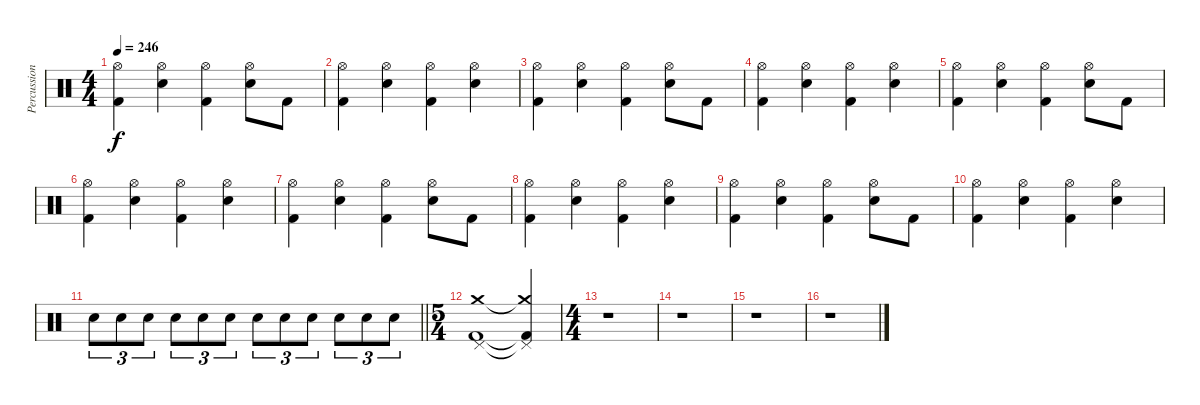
\track ("Percussions" "Percussion") {instrument percussion}
\staff {score}
\articulation defaults
\ts (4 4)
\tempo 246
\clef neutral
\ks c
("Hi-Hat (open)" "Kick (hit) 2").4{dy f} ("Hi-Hat (open)" "Electric Snare (hit)").4 ("Hi-Hat (open)" "Kick (hit) 2").4 ("Hi-Hat (open)" "Electric Snare (hit)").8 "Kick (hit) 2".8 |
("Hi-Hat (open)" "Kick (hit) 2").4 ("Hi-Hat (open)" "Electric Snare (hit)").4 ("Hi-Hat (open)" "Kick (hit) 2").4 ("Hi-Hat (open)" "Electric Snare (hit)").4 |
("Hi-Hat (open)" "Kick (hit) 2").4 ("Hi-Hat (open)" "Electric Snare (hit)").4 ("Hi-Hat (open)" "Kick (hit) 2").4 ("Hi-Hat (open)" "Electric Snare (hit)").8 "Kick (hit) 2".8 |
("Hi-Hat (open)" "Kick (hit) 2").4 ("Hi-Hat (open)" "Electric Snare (hit)").4 ("Hi-Hat (open)" "Kick (hit) 2").4 ("Hi-Hat (open)" "Electric Snare (hit)").4 |
("Hi-Hat (open)" "Kick (hit) 2").4 ("Hi-Hat (open)" "Electric Snare (hit)").4 ("Hi-Hat (open)" "Kick (hit) 2").4 ("Hi-Hat (open)" "Electric Snare (hit)").8 "Kick (hit) 2".8 |
("Hi-Hat (open)" "Kick (hit) 2").4 ("Hi-Hat (open)" "Electric Snare (hit)").4 ("Hi-Hat (open)" "Kick (hit) 2").4 ("Hi-Hat (open)" "Electric Snare (hit)").4 |
("Hi-Hat (open)" "Kick (hit) 2").4 ("Hi-Hat (open)" "Electric Snare (hit)").4 ("Hi-Hat (open)" "Kick (hit) 2").4 ("Hi-Hat (open)" "Electric Snare (hit)").8 "Kick (hit) 2".8 |
("Hi-Hat (open)" "Kick (hit) 2").4 ("Hi-Hat (open)" "Electric Snare (hit)").4 ("Hi-Hat (open)" "Kick (hit) 2").4 ("Hi-Hat (open)" "Electric Snare (hit)").4 |
("Hi-Hat (open)" "Kick (hit) 2").4 ("Hi-Hat (open)" "Electric Snare (hit)").4 ("Hi-Hat (open)" "Kick (hit) 2").4 ("Hi-Hat (open)" "Electric Snare (hit)").8 "Kick (hit) 2".8 |
("Hi-Hat (open)" "Kick (hit) 2").4 ("Hi-Hat (open)" "Electric Snare (hit)").4 ("Hi-Hat (open)" "Kick (hit) 2").4 ("Hi-Hat (open)" "Electric Snare (hit)").4 |
\barLineRight lightlight "Electric Snare (hit)".8{tu (3 2)} "Electric Snare (hit)".8{tu (3 2)} "Electric Snare (hit)".8{tu (3 2)} "Electric Snare (hit)".8{tu (3 2)} "Electric Snare (hit)".8{tu (3 2)} "Electric Snare (hit)".8{tu (3 2)} "Electric Snare (hit)".8{tu (3 2)} "Electric Snare (hit)".8{tu (3 2)} "Electric Snare (hit)".8{tu (3 2)} "Electric Snare (hit)".8{tu (3 2)} "Electric Snare (hit)".8{tu (3 2)} "Electric Snare (hit)".8{tu (3 2)}
|
\ts (5 4)
("Crash medium (hit)" "Pedal Hi-Hat (hit)" "Kick (hit) 2").1 ("Crash medium (hit)"{t} "Pedal Hi-Hat (hit)"{t} "Kick (hit) 2"{t}).4 |
\ts (4 4)
r.1 |
r.1 |
r.1 |
r.1
